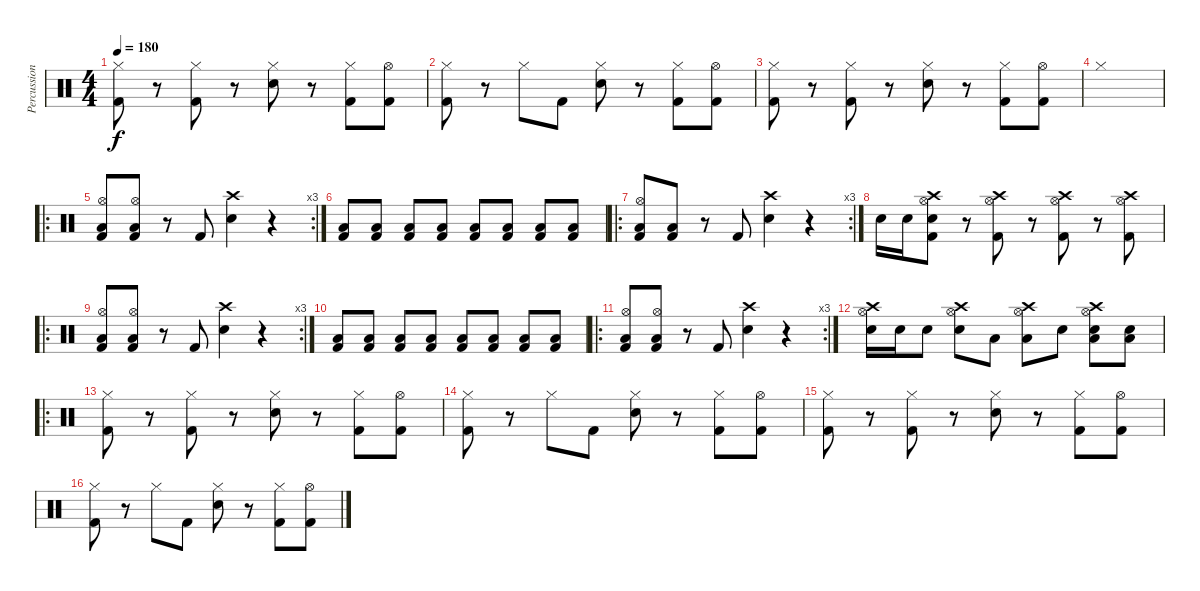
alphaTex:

\track ("Percussions" "Percussion") {instrument percussion}
\staff {score}
\articulation defaults
\ts (4 4)
\tempo 180
\clef neutral
\ks c
("Hi-Hat (closed)" "Kick (hit) 2").8{dy f} r.8 ("Hi-Hat (closed)" "Kick (hit) 2").8 r.8 ("Hi-Hat (closed)" "Snare (hit) 2").8 r.8 ("Hi-Hat (closed)" "Kick (hit) 2").8 ("Hi-Hat (open)" "Kick (hit) 2").8 |
("Hi-Hat (closed)" "Kick (hit) 2").8 r.8 "Hi-Hat (closed)".8 "Kick (hit) 2".8 ("Hi-Hat (closed)" "Snare (hit) 2").8 r.8 ("Hi-Hat (closed)" "Kick (hit) 2").8 ("Hi-Hat (open)" "Kick (hit) 2").8 |
("Hi-Hat (closed)" "Kick (hit) 2").8 r.8 ("Hi-Hat (closed)" "Kick (hit) 2").8 r.8 ("Hi-Hat (closed)" "Snare (hit) 2").8 r.8 ("Hi-Hat (closed)" "Kick (hit) 2").8 ("Hi-Hat (open)" "Kick (hit) 2").8 |
"Hi-Hat (closed)".1 |
\ro
\rc 3
("Hi-Hat (open)" "Kick (hit) 2" "Low Floor Tom (hit)").8 ("Hi-Hat (open)" "Kick (hit) 2" "Low Floor Tom (hit)").8 r.8 "Kick (hit) 2".8 ("Crash high (hit)" "Snare (hit) 2").4 r.4 |
("Kick (hit) 2" "Low Floor Tom (hit)").8 ("Kick (hit) 2" "Low Floor Tom (hit)").8 ("Kick (hit) 2" "Low Floor Tom (hit)").8 ("Kick (hit) 2" "Low Floor Tom (hit)").8 ("Kick (hit) 2" "Low Floor Tom (hit)").8 ("Kick (hit) 2" "Low Floor Tom (hit)").8 ("Kick (hit) 2" "Low Floor Tom (hit)").8 ("Kick (hit) 2" "Low Floor Tom (hit)").8 |
\ro
\rc 3
("Hi-Hat (open)" "Kick (hit) 2" "Low Floor Tom (hit)").8 ("Kick (hit) 2" "Low Floor Tom (hit)").8 r.8 "Kick (hit) 2".8 ("Crash high (hit)" "Snare (hit) 2").4 r.4 |
"Snare (hit) 2".16 "Snare (hit) 2".16 ("Hi-Hat (open)" "Crash high (hit)" "Kick (hit) 2" "Snare (hit) 2").8 r.8 ("Hi-Hat (open)" "Crash high (hit)" "Kick (hit) 2").8 r.8 ("Hi-Hat (open)" "Crash high (hit)" "Kick (hit) 2").8 r.8 ("Hi-Hat (open)" "Crash high (hit)" "Kick (hit) 2").8 |
\ro
\rc 3
("Hi-Hat (open)" "Kick (hit) 2" "Low Floor Tom (hit)").8 ("Hi-Hat (open)" "Kick (hit) 2" "Low Floor Tom (hit)").8 r.8 "Kick (hit) 2".8 ("Crash high (hit)" "Snare (hit) 2").4 r.4 |
("Kick (hit) 2" "Low Floor Tom (hit)").8 ("Kick (hit) 2" "Low Floor Tom (hit)").8 ("Kick (hit) 2" "Low Floor Tom (hit)").8 ("Kick (hit) 2" "Low Floor Tom (hit)").8 ("Kick (hit) 2" "Low Floor Tom (hit)").8 ("Kick (hit) 2" "Low Floor Tom (hit)").8 ("Kick (hit) 2" "Low Floor Tom (hit)").8 ("Kick (hit) 2" "Low Floor Tom (hit)").8 |
\ro
\rc 3
("Hi-Hat (open)" "Kick (hit) 2" "Low Floor Tom (hit)").8 ("Hi-Hat (open)" "Kick (hit) 2" "Low Floor Tom (hit)").8 r.8 "Kick (hit) 2".8 ("Crash high (hit)" "Snare (hit) 2").4 r.4 |
("Snare (hit) 2" "Crash high (hit)" "Hi-Hat (open)").16 "Snare (hit) 2".16 "Snare (hit) 2".8 ("Snare (hit) 2" "Hi-Hat (open)" "Crash high (hit)").8 "Low Floor Tom (hit)".8 ("Low Floor Tom (hit)" "Hi-Hat (open)" "Crash high (hit)").8 "Snare (hit) 2".8 ("Snare (hit) 2" "Low Floor Tom (hit)" "Hi-Hat (open)" "Crash high (hit)").8 ("Snare (hit) 2" "Low Floor Tom (hit)").8 |
\ro
("Hi-Hat (closed)" "Kick (hit) 2").8 r.8 ("Hi-Hat (closed)" "Kick (hit) 2").8 r.8 ("Hi-Hat (closed)" "Snare (hit) 2").8 r.8 ("Hi-Hat (closed)" "Kick (hit) 2").8 ("Hi-Hat (open)" "Kick (hit) 2").8 |
("Hi-Hat (closed)" "Kick (hit) 2").8 r.8 "Hi-Hat (closed)".8 "Kick (hit) 2".8 ("Hi-Hat (closed)" "Snare (hit) 2").8 r.8 ("Hi-Hat (closed)" "Kick (hit) 2").8 ("Hi-Hat (open)" "Kick (hit) 2").8 |
("Hi-Hat (closed)" "Kick (hit) 2").8 r.8 ("Hi-Hat (closed)" "Kick (hit) 2").8 r.8 ("Hi-Hat (closed)" "Snare (hit) 2").8 r.8 ("Hi-Hat (closed)" "Kick (hit) 2").8 ("Hi-Hat (open)" "Kick (hit) 2").8 |
("Hi-Hat (closed)" "Kick (hit) 2").8 r.8 "Hi-Hat (closed)".8 "Kick (hit) 2".8 ("Hi-Hat (closed)" "Snare (hit) 2").8 r.8 ("Hi-Hat (closed)" "Kick (hit) 2").8 ("Hi-Hat (open)" "Kick (hit) 2").8
